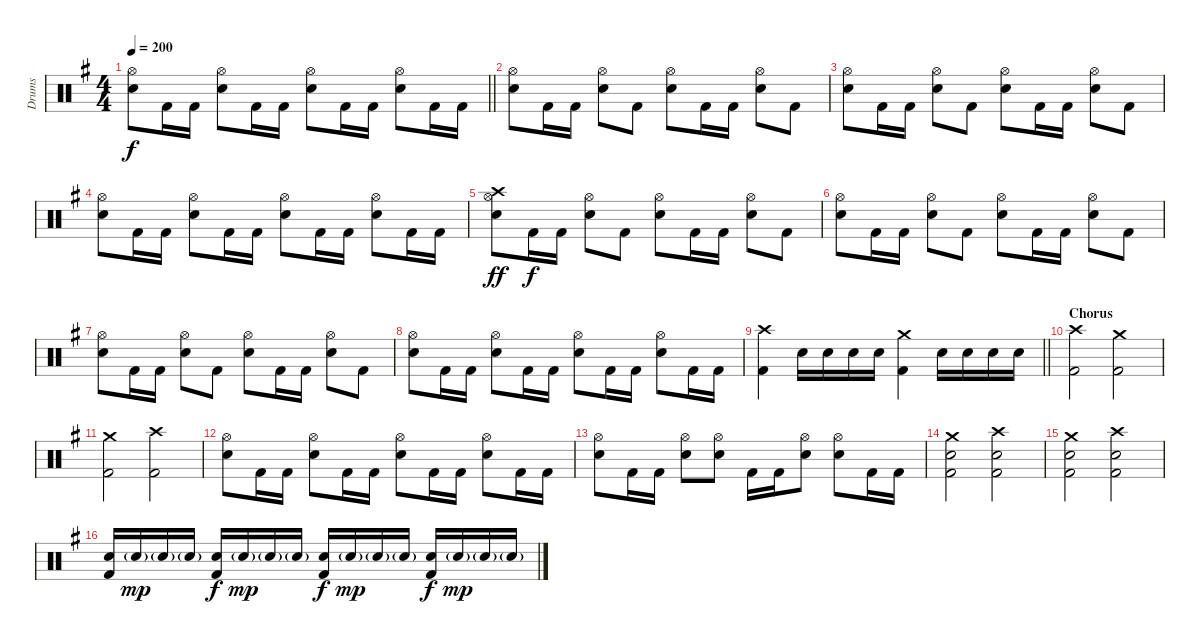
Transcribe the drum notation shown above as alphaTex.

\track ("Drums" "Drums") {instrument percussion}
\staff {score}
\articulation defaults
\ts (4 4)
\tempo 200
\clef neutral
\barLineRight lightlight
\ks eminor
("Hi-Hat (open)" "Snare (hit) 2").8{dy f} "Kick (hit) 2".16 "Kick (hit) 2".16 ("Hi-Hat (open)" "Snare (hit) 2").8 "Kick (hit) 2".16 "Kick (hit) 2".16 ("Hi-Hat (open)" "Snare (hit) 2").8 "Kick (hit) 2".16 "Kick (hit) 2".16 ("Hi-Hat (open)" "Snare (hit) 2").8 "Kick (hit) 2".16 "Kick (hit) 2".16 |
("Hi-Hat (open)" "Snare (hit) 2").8 "Kick (hit) 2".16 "Kick (hit) 2".16 ("Hi-Hat (open)" "Snare (hit) 2").8 "Kick (hit) 2".8 ("Hi-Hat (open)" "Snare (hit) 2").8 "Kick (hit) 2".16 "Kick (hit) 2".16 ("Hi-Hat (open)" "Snare (hit) 2").8 "Kick (hit) 2".8 |
("Hi-Hat (open)" "Snare (hit) 2").8 "Kick (hit) 2".16 "Kick (hit) 2".16 ("Hi-Hat (open)" "Snare (hit) 2").8 "Kick (hit) 2".8 ("Hi-Hat (open)" "Snare (hit) 2").8 "Kick (hit) 2".16 "Kick (hit) 2".16 ("Hi-Hat (open)" "Snare (hit) 2").8 "Kick (hit) 2".8 |
("Hi-Hat (open)" "Snare (hit) 2").8 "Kick (hit) 2".16 "Kick (hit) 2".16 ("Hi-Hat (open)" "Snare (hit) 2").8 "Kick (hit) 2".16 "Kick (hit) 2".16 ("Hi-Hat (open)" "Snare (hit) 2").8 "Kick (hit) 2".16 "Kick (hit) 2".16 ("Hi-Hat (open)" "Snare (hit) 2").8 "Kick (hit) 2".16 "Kick (hit) 2".16 |
("Crash high (hit)" "Hi-Hat (open)" "Snare (hit) 2").8{dy ff} "Kick (hit) 2".16{dy f} "Kick (hit) 2".16 ("Hi-Hat (open)" "Snare (hit) 2").8 "Kick (hit) 2".8 ("Hi-Hat (open)" "Snare (hit) 2").8 "Kick (hit) 2".16 "Kick (hit) 2".16 ("Hi-Hat (open)" "Snare (hit) 2").8 "Kick (hit) 2".8 |
("Hi-Hat (open)" "Snare (hit) 2").8 "Kick (hit) 2".16 "Kick (hit) 2".16 ("Hi-Hat (open)" "Snare (hit) 2").8 "Kick (hit) 2".8 ("Hi-Hat (open)" "Snare (hit) 2").8 "Kick (hit) 2".16 "Kick (hit) 2".16 ("Hi-Hat (open)" "Snare (hit) 2").8 "Kick (hit) 2".8 |
("Hi-Hat (open)" "Snare (hit) 2").8 "Kick (hit) 2".16 "Kick (hit) 2".16 ("Hi-Hat (open)" "Snare (hit) 2").8 "Kick (hit) 2".8 ("Hi-Hat (open)" "Snare (hit) 2").8 "Kick (hit) 2".16 "Kick (hit) 2".16 ("Hi-Hat (open)" "Snare (hit) 2").8 "Kick (hit) 2".8 |
("Hi-Hat (open)" "Snare (hit) 2").8 "Kick (hit) 2".16 "Kick (hit) 2".16 ("Hi-Hat (open)" "Snare (hit) 2").8 "Kick (hit) 2".16 "Kick (hit) 2".16 ("Hi-Hat (open)" "Snare (hit) 2").8 "Kick (hit) 2".16 "Kick (hit) 2".16 ("Hi-Hat (open)" "Snare (hit) 2").8 "Kick (hit) 2".16 "Kick (hit) 2".16 |
\barLineRight lightlight
("Crash high (hit)" "Kick (hit) 2").4 "Snare (hit) 2".16 "Snare (hit) 2".16 "Snare (hit) 2".16 "Snare (hit) 2".16 ("Kick (hit) 2" "Crash medium (hit)").4 "Snare (hit) 2".16 "Snare (hit) 2".16 "Snare (hit) 2".16 "Snare (hit) 2".16 |
\section ("" "Chorus")
("Crash high (hit)" "Kick (hit) 2").2 ("Crash medium (hit)" "Kick (hit) 2").2 |
("Crash medium (hit)" "Kick (hit) 2").2 ("Crash high (hit)" "Kick (hit) 2").2 |
("Hi-Hat (open)" "Snare (hit) 2").8 "Kick (hit) 2".16 "Kick (hit) 2".16 ("Hi-Hat (open)" "Snare (hit) 2").8 "Kick (hit) 2".16 "Kick (hit) 2".16 ("Hi-Hat (open)" "Snare (hit) 2").8 "Kick (hit) 2".16 "Kick (hit) 2".16 ("Hi-Hat (open)" "Snare (hit) 2").8 "Kick (hit) 2".16 "Kick (hit) 2".16 |
("Hi-Hat (open)" "Snare (hit) 2").8 "Kick (hit) 2".16 "Kick (hit) 2".16 ("Hi-Hat (open)" "Snare (hit) 2").8 ("Hi-Hat (open)" "Snare (hit) 2").8 "Kick (hit) 2".16 "Kick (hit) 2".16 ("Hi-Hat (open)" "Snare (hit) 2").8 ("Hi-Hat (open)" "Snare (hit) 2").8 "Kick (hit) 2".16 "Kick (hit) 2".16 |
("Snare (hit) 2" "Crash medium (hit)" "Kick (hit) 2").2 ("Snare (hit) 2" "Crash high (hit)" "Kick (hit) 2").2 |
("Snare (hit) 2" "Crash medium (hit)" "Kick (hit) 2").2 ("Snare (hit) 2" "Crash high (hit)" "Kick (hit) 2").2 |
("Snare (hit) 2" "Kick (hit) 2").16 "Snare (hit) 2"{g}.16{dy mp} "Snare (hit) 2"{g}.16 "Snare (hit) 2"{g}.16 ("Snare (hit) 2" "Kick (hit) 2").16{dy f} "Snare (hit) 2"{g}.16{dy mp} "Snare (hit) 2"{g}.16 "Snare (hit) 2"{g}.16 ("Snare (hit) 2" "Kick (hit) 2").16{dy f} "Snare (hit) 2"{g}.16{dy mp} "Snare (hit) 2"{g}.16 "Snare (hit) 2"{g}.16 ("Snare (hit) 2" "Kick (hit) 2").16{dy f} "Snare (hit) 2"{g}.16{dy mp} "Snare (hit) 2"{g}.16 "Snare (hit) 2"{g}.16
